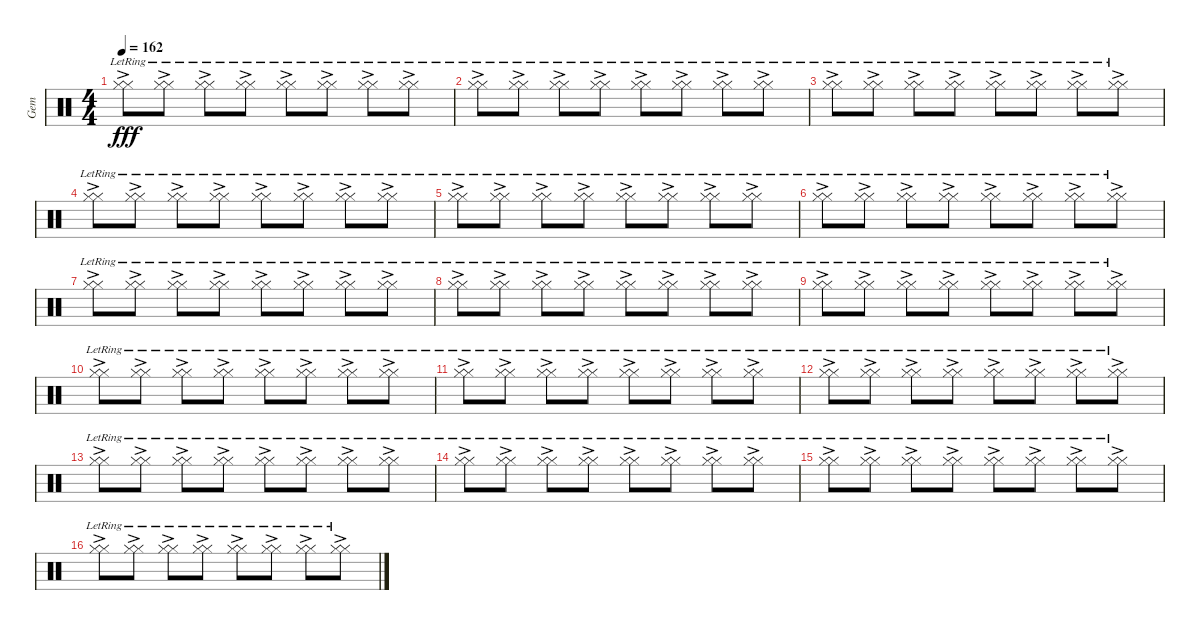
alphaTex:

\track ("Gem" "Gem") {instrument percussion}
\staff {score}
\articulation defaults
\ts (4 4)
\tempo 162
\clef neutral
\ks c
("Hi-Hat (closed)"{ac lr} "Hi-Hat (closed)"{lr}).8{dy fff} ("Hi-Hat (closed)"{ac lr} "Hi-Hat (closed)"{lr}).8 ("Hi-Hat (closed)"{ac lr} "Hi-Hat (closed)"{lr}).8 ("Hi-Hat (closed)"{ac lr} "Hi-Hat (closed)"{lr}).8 ("Hi-Hat (closed)"{ac lr} "Hi-Hat (closed)"{lr}).8 ("Hi-Hat (closed)"{ac lr} "Hi-Hat (closed)"{lr}).8 ("Hi-Hat (closed)"{ac lr} "Hi-Hat (closed)"{lr}).8 ("Hi-Hat (closed)"{ac lr} "Hi-Hat (closed)"{lr}).8 |
("Hi-Hat (closed)"{ac lr} "Hi-Hat (closed)"{lr}).8 ("Hi-Hat (closed)"{ac lr} "Hi-Hat (closed)"{lr}).8 ("Hi-Hat (closed)"{ac lr} "Hi-Hat (closed)"{lr}).8 ("Hi-Hat (closed)"{ac lr} "Hi-Hat (closed)"{lr}).8 ("Hi-Hat (closed)"{ac lr} "Hi-Hat (closed)"{lr}).8 ("Hi-Hat (closed)"{ac lr} "Hi-Hat (closed)"{lr}).8 ("Hi-Hat (closed)"{ac lr} "Hi-Hat (closed)"{lr}).8 ("Hi-Hat (closed)"{ac lr} "Hi-Hat (closed)"{lr}).8 |
("Hi-Hat (closed)"{ac lr} "Hi-Hat (closed)"{lr}).8 ("Hi-Hat (closed)"{ac lr} "Hi-Hat (closed)"{lr}).8 ("Hi-Hat (closed)"{ac lr} "Hi-Hat (closed)"{lr}).8 ("Hi-Hat (closed)"{ac lr} "Hi-Hat (closed)"{lr}).8 ("Hi-Hat (closed)"{ac lr} "Hi-Hat (closed)"{lr}).8 ("Hi-Hat (closed)"{ac lr} "Hi-Hat (closed)"{lr}).8 ("Hi-Hat (closed)"{ac lr} "Hi-Hat (closed)"{lr}).8 ("Hi-Hat (closed)"{ac lr} "Hi-Hat (closed)"{lr}).8 |
("Hi-Hat (closed)"{ac lr} "Hi-Hat (closed)"{lr}).8 ("Hi-Hat (closed)"{ac lr} "Hi-Hat (closed)"{lr}).8 ("Hi-Hat (closed)"{ac lr} "Hi-Hat (closed)"{lr}).8 ("Hi-Hat (closed)"{ac lr} "Hi-Hat (closed)"{lr}).8 ("Hi-Hat (closed)"{ac lr} "Hi-Hat (closed)"{lr}).8 ("Hi-Hat (closed)"{ac lr} "Hi-Hat (closed)"{lr}).8 ("Hi-Hat (closed)"{ac lr} "Hi-Hat (closed)"{lr}).8 ("Hi-Hat (closed)"{ac lr} "Hi-Hat (closed)"{lr}).8 |
("Hi-Hat (closed)"{ac lr} "Hi-Hat (closed)"{lr}).8 ("Hi-Hat (closed)"{ac lr} "Hi-Hat (closed)"{lr}).8 ("Hi-Hat (closed)"{ac lr} "Hi-Hat (closed)"{lr}).8 ("Hi-Hat (closed)"{ac lr} "Hi-Hat (closed)"{lr}).8 ("Hi-Hat (closed)"{ac lr} "Hi-Hat (closed)"{lr}).8 ("Hi-Hat (closed)"{ac lr} "Hi-Hat (closed)"{lr}).8 ("Hi-Hat (closed)"{ac lr} "Hi-Hat (closed)"{lr}).8 ("Hi-Hat (closed)"{ac lr} "Hi-Hat (closed)"{lr}).8 |
("Hi-Hat (closed)"{ac lr} "Hi-Hat (closed)"{lr}).8 ("Hi-Hat (closed)"{ac lr} "Hi-Hat (closed)"{lr}).8 ("Hi-Hat (closed)"{ac lr} "Hi-Hat (closed)"{lr}).8 ("Hi-Hat (closed)"{ac lr} "Hi-Hat (closed)"{lr}).8 ("Hi-Hat (closed)"{ac lr} "Hi-Hat (closed)"{lr}).8 ("Hi-Hat (closed)"{ac lr} "Hi-Hat (closed)"{lr}).8 ("Hi-Hat (closed)"{ac lr} "Hi-Hat (closed)"{lr}).8 ("Hi-Hat (closed)"{ac lr} "Hi-Hat (closed)"{lr}).8 |
("Hi-Hat (closed)"{ac lr} "Hi-Hat (closed)"{lr}).8 ("Hi-Hat (closed)"{ac lr} "Hi-Hat (closed)"{lr}).8 ("Hi-Hat (closed)"{ac lr} "Hi-Hat (closed)"{lr}).8 ("Hi-Hat (closed)"{ac lr} "Hi-Hat (closed)"{lr}).8 ("Hi-Hat (closed)"{ac lr} "Hi-Hat (closed)"{lr}).8 ("Hi-Hat (closed)"{ac lr} "Hi-Hat (closed)"{lr}).8 ("Hi-Hat (closed)"{ac lr} "Hi-Hat (closed)"{lr}).8 ("Hi-Hat (closed)"{ac lr} "Hi-Hat (closed)"{lr}).8 |
("Hi-Hat (closed)"{ac lr} "Hi-Hat (closed)"{lr}).8 ("Hi-Hat (closed)"{ac lr} "Hi-Hat (closed)"{lr}).8 ("Hi-Hat (closed)"{ac lr} "Hi-Hat (closed)"{lr}).8 ("Hi-Hat (closed)"{ac lr} "Hi-Hat (closed)"{lr}).8 ("Hi-Hat (closed)"{ac lr} "Hi-Hat (closed)"{lr}).8 ("Hi-Hat (closed)"{ac lr} "Hi-Hat (closed)"{lr}).8 ("Hi-Hat (closed)"{ac lr} "Hi-Hat (closed)"{lr}).8 ("Hi-Hat (closed)"{ac lr} "Hi-Hat (closed)"{lr}).8 |
("Hi-Hat (closed)"{ac lr} "Hi-Hat (closed)"{lr}).8 ("Hi-Hat (closed)"{ac lr} "Hi-Hat (closed)"{lr}).8 ("Hi-Hat (closed)"{ac lr} "Hi-Hat (closed)"{lr}).8 ("Hi-Hat (closed)"{ac lr} "Hi-Hat (closed)"{lr}).8 ("Hi-Hat (closed)"{ac lr} "Hi-Hat (closed)"{lr}).8 ("Hi-Hat (closed)"{ac lr} "Hi-Hat (closed)"{lr}).8 ("Hi-Hat (closed)"{ac lr} "Hi-Hat (closed)"{lr}).8 ("Hi-Hat (closed)"{ac lr} "Hi-Hat (closed)"{lr}).8 |
("Hi-Hat (closed)"{ac lr} "Hi-Hat (closed)"{lr}).8 ("Hi-Hat (closed)"{ac lr} "Hi-Hat (closed)"{lr}).8 ("Hi-Hat (closed)"{ac lr} "Hi-Hat (closed)"{lr}).8 ("Hi-Hat (closed)"{ac lr} "Hi-Hat (closed)"{lr}).8 ("Hi-Hat (closed)"{ac lr} "Hi-Hat (closed)"{lr}).8 ("Hi-Hat (closed)"{ac lr} "Hi-Hat (closed)"{lr}).8 ("Hi-Hat (closed)"{ac lr} "Hi-Hat (closed)"{lr}).8 ("Hi-Hat (closed)"{ac lr} "Hi-Hat (closed)"{lr}).8 |
("Hi-Hat (closed)"{ac lr} "Hi-Hat (closed)"{lr}).8 ("Hi-Hat (closed)"{ac lr} "Hi-Hat (closed)"{lr}).8 ("Hi-Hat (closed)"{ac lr} "Hi-Hat (closed)"{lr}).8 ("Hi-Hat (closed)"{ac lr} "Hi-Hat (closed)"{lr}).8 ("Hi-Hat (closed)"{ac lr} "Hi-Hat (closed)"{lr}).8 ("Hi-Hat (closed)"{ac lr} "Hi-Hat (closed)"{lr}).8 ("Hi-Hat (closed)"{ac lr} "Hi-Hat (closed)"{lr}).8 ("Hi-Hat (closed)"{ac lr} "Hi-Hat (closed)"{lr}).8 |
("Hi-Hat (closed)"{ac lr} "Hi-Hat (closed)"{lr}).8 ("Hi-Hat (closed)"{ac lr} "Hi-Hat (closed)"{lr}).8 ("Hi-Hat (closed)"{ac lr} "Hi-Hat (closed)"{lr}).8 ("Hi-Hat (closed)"{ac lr} "Hi-Hat (closed)"{lr}).8 ("Hi-Hat (closed)"{ac lr} "Hi-Hat (closed)"{lr}).8 ("Hi-Hat (closed)"{ac lr} "Hi-Hat (closed)"{lr}).8 ("Hi-Hat (closed)"{ac lr} "Hi-Hat (closed)"{lr}).8 ("Hi-Hat (closed)"{ac lr} "Hi-Hat (closed)"{lr}).8 |
("Hi-Hat (closed)"{ac lr} "Hi-Hat (closed)"{lr}).8 ("Hi-Hat (closed)"{ac lr} "Hi-Hat (closed)"{lr}).8 ("Hi-Hat (closed)"{ac lr} "Hi-Hat (closed)"{lr}).8 ("Hi-Hat (closed)"{ac lr} "Hi-Hat (closed)"{lr}).8 ("Hi-Hat (closed)"{ac lr} "Hi-Hat (closed)"{lr}).8 ("Hi-Hat (closed)"{ac lr} "Hi-Hat (closed)"{lr}).8 ("Hi-Hat (closed)"{ac lr} "Hi-Hat (closed)"{lr}).8 ("Hi-Hat (closed)"{ac lr} "Hi-Hat (closed)"{lr}).8 |
("Hi-Hat (closed)"{ac lr} "Hi-Hat (closed)"{lr}).8 ("Hi-Hat (closed)"{ac lr} "Hi-Hat (closed)"{lr}).8 ("Hi-Hat (closed)"{ac lr} "Hi-Hat (closed)"{lr}).8 ("Hi-Hat (closed)"{ac lr} "Hi-Hat (closed)"{lr}).8 ("Hi-Hat (closed)"{ac lr} "Hi-Hat (closed)"{lr}).8 ("Hi-Hat (closed)"{ac lr} "Hi-Hat (closed)"{lr}).8 ("Hi-Hat (closed)"{ac lr} "Hi-Hat (closed)"{lr}).8 ("Hi-Hat (closed)"{ac lr} "Hi-Hat (closed)"{lr}).8 |
("Hi-Hat (closed)"{ac lr} "Hi-Hat (closed)"{lr}).8 ("Hi-Hat (closed)"{ac lr} "Hi-Hat (closed)"{lr}).8 ("Hi-Hat (closed)"{ac lr} "Hi-Hat (closed)"{lr}).8 ("Hi-Hat (closed)"{ac lr} "Hi-Hat (closed)"{lr}).8 ("Hi-Hat (closed)"{ac lr} "Hi-Hat (closed)"{lr}).8 ("Hi-Hat (closed)"{ac lr} "Hi-Hat (closed)"{lr}).8 ("Hi-Hat (closed)"{ac lr} "Hi-Hat (closed)"{lr}).8 ("Hi-Hat (closed)"{ac lr} "Hi-Hat (closed)"{lr}).8 |
("Hi-Hat (closed)"{ac lr} "Hi-Hat (closed)"{lr}).8 ("Hi-Hat (closed)"{ac lr} "Hi-Hat (closed)"{lr}).8 ("Hi-Hat (closed)"{ac lr} "Hi-Hat (closed)"{lr}).8 ("Hi-Hat (closed)"{ac lr} "Hi-Hat (closed)"{lr}).8 ("Hi-Hat (closed)"{ac lr} "Hi-Hat (closed)"{lr}).8 ("Hi-Hat (closed)"{ac lr} "Hi-Hat (closed)"{lr}).8 ("Hi-Hat (closed)"{ac lr} "Hi-Hat (closed)"{lr}).8 ("Hi-Hat (closed)"{ac lr} "Hi-Hat (closed)"{lr}).8
